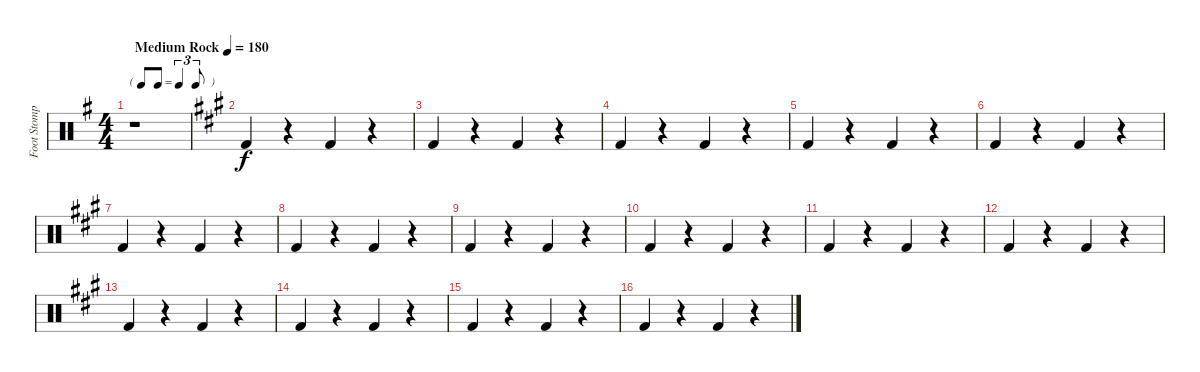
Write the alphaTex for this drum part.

\track ("Foot Stomp" "Foot Stomp") {instrument percussion}
\staff {score}
\articulation defaults
\ts (4 4)
\tf triplet8th
\tempo (180 "Medium Rock")
\clef neutral
\ks g
r.1{dy f} |
\ks a "Kick (hit) 2".4
r.4 "Kick (hit) 2".4 r.4 |
"Kick (hit) 2".4 r.4 "Kick (hit) 2".4 r.4 |
"Kick (hit) 2".4 r.4 "Kick (hit) 2".4 r.4 |
"Kick (hit) 2".4 r.4 "Kick (hit) 2".4 r.4 |
"Kick (hit) 2".4 r.4 "Kick (hit) 2".4 r.4 |
"Kick (hit) 2".4 r.4 "Kick (hit) 2".4 r.4 |
"Kick (hit) 2".4 r.4 "Kick (hit) 2".4 r.4 |
"Kick (hit) 2".4 r.4 "Kick (hit) 2".4 r.4 |
"Kick (hit) 2".4 r.4 "Kick (hit) 2".4 r.4 |
"Kick (hit) 2".4 r.4 "Kick (hit) 2".4 r.4 |
"Kick (hit) 2".4 r.4 "Kick (hit) 2".4 r.4 |
"Kick (hit) 2".4 r.4 "Kick (hit) 2".4 r.4 |
"Kick (hit) 2".4 r.4 "Kick (hit) 2".4 r.4 |
"Kick (hit) 2".4 r.4 "Kick (hit) 2".4 r.4 |
"Kick (hit) 2".4 r.4 "Kick (hit) 2".4 r.4
